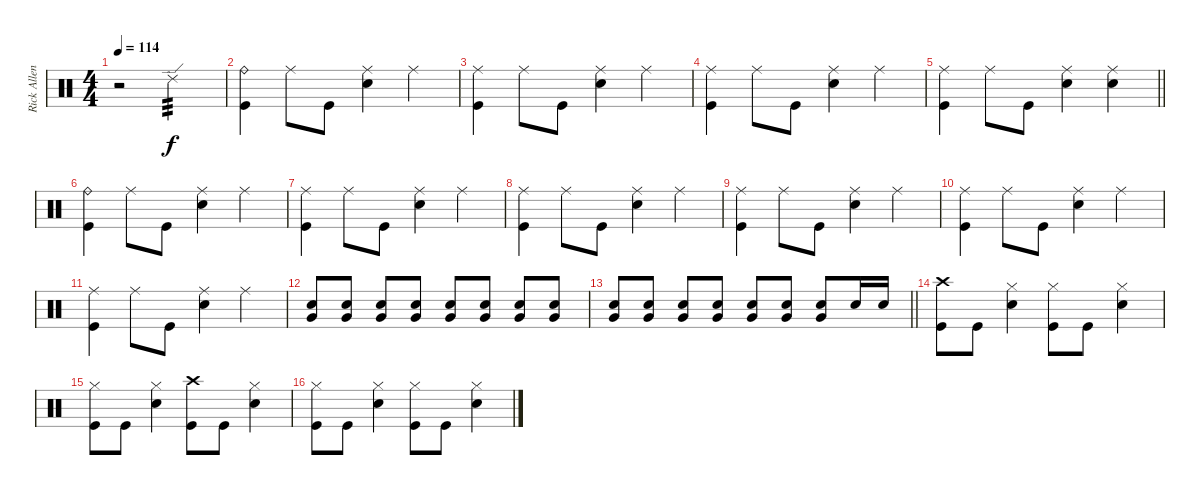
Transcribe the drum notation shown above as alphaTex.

\track ("Rick Allen" "Rick Allen") {instrument percussion}
\staff {score}
\articulation defaults
\ts (4 4)
\tempo 114
\clef neutral
\ks aminor
r.2{dy f} "Ride (edge) 2".2{tp 3} |
\ks c
("Ride (bell)" "Kick (hit)").4 "Ride (middle)".8 "Kick (hit)".8 ("Ride (middle)" "Snare (hit) 2").4 "Ride (middle)".4 |
("Ride (middle)" "Kick (hit)").4 "Ride (middle)".8 "Kick (hit)".8 ("Ride (middle)" "Snare (hit) 2").4 "Ride (middle)".4 |
("Ride (middle)" "Kick (hit)").4 "Ride (middle)".8 "Kick (hit)".8 ("Ride (middle)" "Snare (hit) 2").4 "Ride (middle)".4 |
\barLineRight lightlight
("Ride (middle)" "Kick (hit)").4 "Ride (middle)".8 "Kick (hit)".8 ("Ride (middle)" "Snare (hit) 2").4 ("Ride (middle)" "Snare (hit) 2").4 |
("Ride (bell)" "Kick (hit)").4 "Ride (middle)".8 "Kick (hit)".8 ("Ride (middle)" "Snare (hit) 2").4 "Ride (middle)".4 |
("Ride (middle)" "Kick (hit)").4 "Ride (middle)".8 "Kick (hit)".8 ("Ride (middle)" "Snare (hit) 2").4 "Ride (middle)".4 |
("Ride (middle)" "Kick (hit)").4 "Ride (middle)".8 "Kick (hit)".8 ("Ride (middle)" "Snare (hit) 2").4 "Ride (middle)".4 |
("Ride (middle)" "Kick (hit)").4 "Ride (middle)".8 "Kick (hit)".8 ("Ride (middle)" "Snare (hit) 2").4 "Ride (middle)".4 |
("Ride (middle)" "Kick (hit)").4 "Ride (middle)".8 "Kick (hit)".8 ("Ride (middle)" "Snare (hit) 2").4 "Ride (middle)".4 |
("Ride (middle)" "Kick (hit)").4 "Ride (middle)".8 "Kick (hit)".8 ("Ride (middle)" "Snare (hit) 2").4 "Ride (middle)".4 |
("Snare (hit) 2" "Very Low Tom (hit)").8 ("Snare (hit) 2" "Very Low Tom (hit)").8 ("Snare (hit) 2" "Very Low Tom (hit)").8 ("Snare (hit) 2" "Very Low Tom (hit)").8 ("Snare (hit) 2" "Very Low Tom (hit)").8 ("Snare (hit) 2" "Very Low Tom (hit)").8 ("Snare (hit) 2" "Very Low Tom (hit)").8 ("Snare (hit) 2" "Very Low Tom (hit)").8 |
\barLineRight lightlight
("Snare (hit) 2" "Very Low Tom (hit)").8 ("Snare (hit) 2" "Very Low Tom (hit)").8 ("Snare (hit) 2" "Very Low Tom (hit)").8 ("Snare (hit) 2" "Very Low Tom (hit)").8 ("Snare (hit) 2" "Very Low Tom (hit)").8 ("Snare (hit) 2" "Very Low Tom (hit)").8 ("Snare (hit) 2" "Very Low Tom (hit)").8 "Snare (hit) 2".16 "Snare (hit) 2".16 |
("Crash high (hit)" "Kick (hit)").8 "Kick (hit)".8 ("Hi-Hat (closed)" "Snare (hit) 2").4 ("Hi-Hat (closed)" "Kick (hit)").8 "Kick (hit)".8 ("Hi-Hat (closed)" "Snare (hit) 2").4 |
("Hi-Hat (closed)" "Kick (hit)").8 "Kick (hit)".8 ("Hi-Hat (closed)" "Snare (hit) 2").4 ("Crash high (hit)" "Kick (hit)").8 "Kick (hit)".8 ("Hi-Hat (closed)" "Snare (hit) 2").4 |
("Hi-Hat (closed)" "Kick (hit)").8 "Kick (hit)".8 ("Hi-Hat (closed)" "Snare (hit) 2").4 ("Hi-Hat (closed)" "Kick (hit)").8 "Kick (hit)".8 ("Hi-Hat (closed)" "Snare (hit) 2").4
